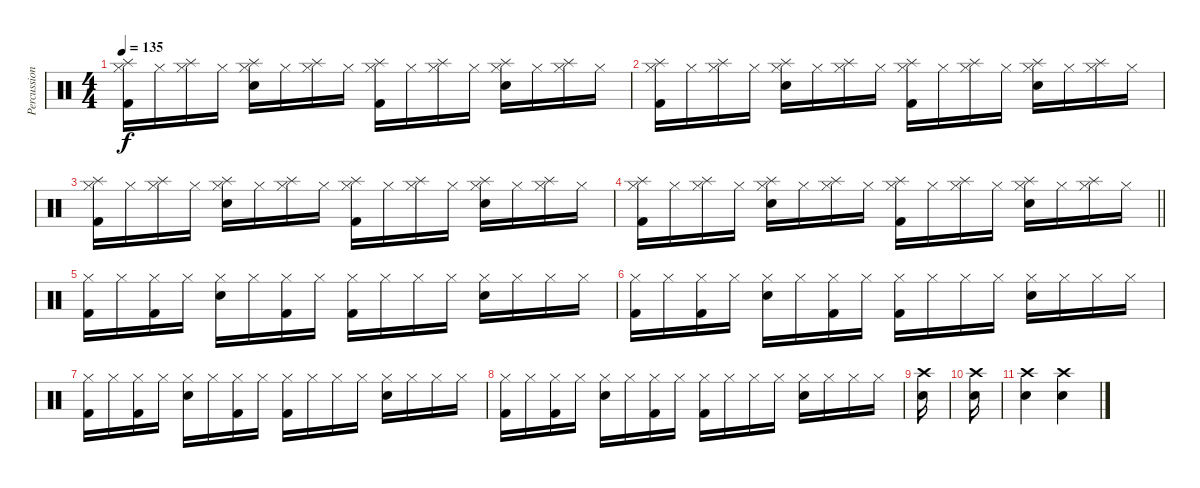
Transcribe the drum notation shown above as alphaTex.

\track ("Percussion" "Percussion") {instrument percussion}
\staff {score}
\articulation defaults
\ts (4 4)
\tempo 135
\clef neutral
\ks c
("Hi-Hat (closed)" "Splash (hit)" "Kick (hit) 2").16{dy f} "Hi-Hat (closed)".16 ("Hi-Hat (closed)" "Splash (hit)").16 "Hi-Hat (closed)".16 ("Hi-Hat (closed)" "Splash (hit)" "Snare (hit) 2").16 "Hi-Hat (closed)".16 ("Hi-Hat (closed)" "Splash (hit)").16 "Hi-Hat (closed)".16 ("Hi-Hat (closed)" "Splash (hit)" "Kick (hit) 2").16 "Hi-Hat (closed)".16 ("Hi-Hat (closed)" "Splash (hit)").16 "Hi-Hat (closed)".16 ("Hi-Hat (closed)" "Splash (hit)" "Snare (hit) 2").16 "Hi-Hat (closed)".16 ("Hi-Hat (closed)" "Splash (hit)").16 "Hi-Hat (closed)".16 |
("Hi-Hat (closed)" "Splash (hit)" "Kick (hit) 2").16 "Hi-Hat (closed)".16 ("Hi-Hat (closed)" "Splash (hit)").16 "Hi-Hat (closed)".16 ("Hi-Hat (closed)" "Splash (hit)" "Snare (hit) 2").16 "Hi-Hat (closed)".16 ("Hi-Hat (closed)" "Splash (hit)").16 "Hi-Hat (closed)".16 ("Hi-Hat (closed)" "Splash (hit)" "Kick (hit) 2").16 "Hi-Hat (closed)".16 ("Hi-Hat (closed)" "Splash (hit)").16 "Hi-Hat (closed)".16 ("Hi-Hat (closed)" "Splash (hit)" "Snare (hit) 2").16 "Hi-Hat (closed)".16 ("Hi-Hat (closed)" "Splash (hit)").16 "Hi-Hat (closed)".16 |
("Hi-Hat (closed)" "Splash (hit)" "Kick (hit) 2").16 "Hi-Hat (closed)".16 ("Hi-Hat (closed)" "Splash (hit)").16 "Hi-Hat (closed)".16 ("Hi-Hat (closed)" "Splash (hit)" "Snare (hit) 2").16 "Hi-Hat (closed)".16 ("Hi-Hat (closed)" "Splash (hit)").16 "Hi-Hat (closed)".16 ("Hi-Hat (closed)" "Splash (hit)" "Kick (hit) 2").16 "Hi-Hat (closed)".16 ("Hi-Hat (closed)" "Splash (hit)").16 "Hi-Hat (closed)".16 ("Hi-Hat (closed)" "Splash (hit)" "Snare (hit) 2").16 "Hi-Hat (closed)".16 ("Hi-Hat (closed)" "Splash (hit)").16 "Hi-Hat (closed)".16 |
\barLineRight lightlight
("Hi-Hat (closed)" "Splash (hit)" "Kick (hit) 2").16 "Hi-Hat (closed)".16 ("Hi-Hat (closed)" "Splash (hit)").16 "Hi-Hat (closed)".16 ("Hi-Hat (closed)" "Splash (hit)" "Snare (hit) 2").16 "Hi-Hat (closed)".16 ("Hi-Hat (closed)" "Splash (hit)").16 "Hi-Hat (closed)".16 ("Hi-Hat (closed)" "Splash (hit)" "Kick (hit) 2").16 "Hi-Hat (closed)".16 ("Hi-Hat (closed)" "Splash (hit)").16 "Hi-Hat (closed)".16 ("Hi-Hat (closed)" "Splash (hit)" "Snare (hit) 2").16 "Hi-Hat (closed)".16 ("Hi-Hat (closed)" "Splash (hit)").16 "Hi-Hat (closed)".16 |
("Hi-Hat (closed)" "Kick (hit) 2").16 "Hi-Hat (closed)".16 ("Hi-Hat (closed)" "Kick (hit) 2").16 "Hi-Hat (closed)".16 ("Hi-Hat (closed)" "Snare (hit) 2").16 "Hi-Hat (closed)".16 ("Hi-Hat (closed)" "Kick (hit) 2").16 "Hi-Hat (closed)".16 ("Hi-Hat (closed)" "Kick (hit) 2").16 "Hi-Hat (closed)".16 "Hi-Hat (closed)".16 "Hi-Hat (closed)".16 ("Hi-Hat (closed)" "Snare (hit) 2").16 "Hi-Hat (closed)".16 "Hi-Hat (closed)".16 "Hi-Hat (closed)".16 |
("Hi-Hat (closed)" "Kick (hit) 2").16 "Hi-Hat (closed)".16 ("Hi-Hat (closed)" "Kick (hit) 2").16 "Hi-Hat (closed)".16 ("Hi-Hat (closed)" "Snare (hit) 2").16 "Hi-Hat (closed)".16 ("Hi-Hat (closed)" "Kick (hit) 2").16 "Hi-Hat (closed)".16 ("Hi-Hat (closed)" "Kick (hit) 2").16 "Hi-Hat (closed)".16 "Hi-Hat (closed)".16 "Hi-Hat (closed)".16 ("Hi-Hat (closed)" "Snare (hit) 2").16 "Hi-Hat (closed)".16 "Hi-Hat (closed)".16 "Hi-Hat (closed)".16 |
("Hi-Hat (closed)" "Kick (hit) 2").16 "Hi-Hat (closed)".16 ("Hi-Hat (closed)" "Kick (hit) 2").16 "Hi-Hat (closed)".16 ("Hi-Hat (closed)" "Snare (hit) 2").16 "Hi-Hat (closed)".16 ("Hi-Hat (closed)" "Kick (hit) 2").16 "Hi-Hat (closed)".16 ("Hi-Hat (closed)" "Kick (hit) 2").16 "Hi-Hat (closed)".16 "Hi-Hat (closed)".16 "Hi-Hat (closed)".16 ("Hi-Hat (closed)" "Snare (hit) 2").16 "Hi-Hat (closed)".16 "Hi-Hat (closed)".16 "Hi-Hat (closed)".16 |
("Hi-Hat (closed)" "Kick (hit) 2").16 "Hi-Hat (closed)".16 ("Hi-Hat (closed)" "Kick (hit) 2").16 "Hi-Hat (closed)".16 ("Hi-Hat (closed)" "Snare (hit) 2").16 "Hi-Hat (closed)".16 ("Hi-Hat (closed)" "Kick (hit) 2").16 "Hi-Hat (closed)".16 ("Hi-Hat (closed)" "Kick (hit) 2").16 "Hi-Hat (closed)".16 "Hi-Hat (closed)".16 "Hi-Hat (closed)".16 ("Hi-Hat (closed)" "Snare (hit) 2").16 "Hi-Hat (closed)".16 "Hi-Hat (closed)".16 "Hi-Hat (closed)".16 |
("Snare (hit) 2" "Crash high (hit)").16 |
("Snare (hit) 2" "Crash high (hit)").16 |
("Crash high (hit)" "Snare (hit) 2").4 ("Crash high (hit)" "Snare (hit) 2").4
